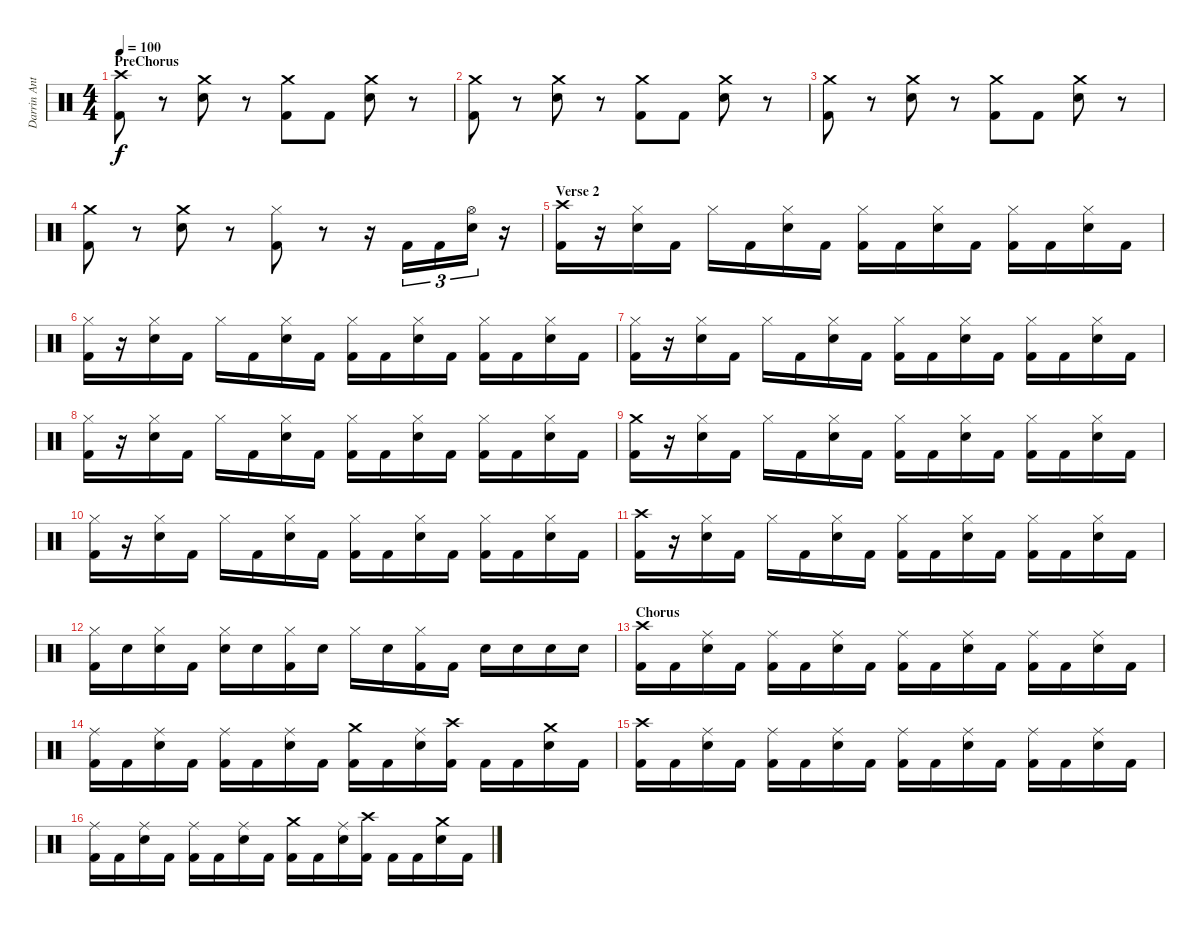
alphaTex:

\track ("Darrin Anthony" "Darrin Ant") {instrument percussion}
\staff {score}
\articulation defaults
\ts (4 4)
\section ("" "PreChorus")
\tempo 100
\clef neutral
\ks c
("Crash high (hit)" "Kick (hit) 2").8{dy f} r.8 ("Crash medium (hit)" "Electric Snare (hit)").8 r.8 ("Crash medium (hit)" "Kick (hit) 2").8 "Kick (hit) 2".8 ("Crash medium (hit)" "Electric Snare (hit)").8 r.8 |
("Crash medium (hit)" "Kick (hit) 2").8 r.8 ("Crash medium (hit)" "Electric Snare (hit)").8 r.8 ("Crash medium (hit)" "Kick (hit) 2").8 "Kick (hit) 2".8 ("Crash medium (hit)" "Electric Snare (hit)").8 r.8 |
("Crash medium (hit)" "Kick (hit) 2").8 r.8 ("Crash medium (hit)" "Electric Snare (hit)").8 r.8 ("Crash medium (hit)" "Kick (hit) 2").8 "Kick (hit) 2".8 ("Crash medium (hit)" "Electric Snare (hit)").8 r.8 |
("Crash medium (hit)" "Kick (hit) 2").8 r.8 ("Crash medium (hit)" "Electric Snare (hit)").8 r.8 ("Hi-Hat (closed)" "Kick (hit) 2").8 r.8 r.16 "Kick (hit) 2".16{tu (3 2)} "Kick (hit) 2".16{tu (3 2)} ("Hi-Hat (open)" "Electric Snare (hit)").16{tu (3 2)} r.16 |
\section ("" "Verse 2")
("Crash high (hit)" "Kick (hit) 2").16 r.16 ("Hi-Hat (closed)" "Electric Snare (hit)").16 "Kick (hit) 2".16 "Hi-Hat (closed)".16 "Kick (hit) 2".16 ("Hi-Hat (closed)" "Electric Snare (hit)").16 "Kick (hit) 2".16 ("Hi-Hat (closed)" "Kick (hit) 2").16 "Kick (hit) 2".16 ("Hi-Hat (closed)" "Electric Snare (hit)").16 "Kick (hit) 2".16 ("Hi-Hat (closed)" "Kick (hit) 2").16 "Kick (hit) 2".16 ("Hi-Hat (closed)" "Electric Snare (hit)").16 "Kick (hit) 2".16 |
("Hi-Hat (closed)" "Kick (hit) 2").16 r.16 ("Hi-Hat (closed)" "Electric Snare (hit)").16 "Kick (hit) 2".16 "Hi-Hat (closed)".16 "Kick (hit) 2".16 ("Hi-Hat (closed)" "Electric Snare (hit)").16 "Kick (hit) 2".16 ("Hi-Hat (closed)" "Kick (hit) 2").16 "Kick (hit) 2".16 ("Hi-Hat (closed)" "Electric Snare (hit)").16 "Kick (hit) 2".16 ("Hi-Hat (closed)" "Kick (hit) 2").16 "Kick (hit) 2".16 ("Hi-Hat (closed)" "Electric Snare (hit)").16 "Kick (hit) 2".16 |
("Hi-Hat (closed)" "Kick (hit) 2").16 r.16 ("Hi-Hat (closed)" "Electric Snare (hit)").16 "Kick (hit) 2".16 "Hi-Hat (closed)".16 "Kick (hit) 2".16 ("Hi-Hat (closed)" "Electric Snare (hit)").16 "Kick (hit) 2".16 ("Hi-Hat (closed)" "Kick (hit) 2").16 "Kick (hit) 2".16 ("Hi-Hat (closed)" "Electric Snare (hit)").16 "Kick (hit) 2".16 ("Hi-Hat (closed)" "Kick (hit) 2").16 "Kick (hit) 2".16 ("Hi-Hat (closed)" "Electric Snare (hit)").16 "Kick (hit) 2".16 |
("Hi-Hat (closed)" "Kick (hit) 2").16 r.16 ("Hi-Hat (closed)" "Electric Snare (hit)").16 "Kick (hit) 2".16 "Hi-Hat (closed)".16 "Kick (hit) 2".16 ("Hi-Hat (closed)" "Electric Snare (hit)").16 "Kick (hit) 2".16 ("Hi-Hat (closed)" "Kick (hit) 2").16 "Kick (hit) 2".16 ("Hi-Hat (closed)" "Electric Snare (hit)").16 "Kick (hit) 2".16 ("Hi-Hat (closed)" "Kick (hit) 2").16 "Kick (hit) 2".16 ("Hi-Hat (closed)" "Electric Snare (hit)").16 "Kick (hit) 2".16 |
("Crash medium (hit)" "Kick (hit) 2").16 r.16 ("Hi-Hat (closed)" "Electric Snare (hit)").16 "Kick (hit) 2".16 "Hi-Hat (closed)".16 "Kick (hit) 2".16 ("Hi-Hat (closed)" "Electric Snare (hit)").16 "Kick (hit) 2".16 ("Hi-Hat (closed)" "Kick (hit) 2").16 "Kick (hit) 2".16 ("Hi-Hat (closed)" "Electric Snare (hit)").16 "Kick (hit) 2".16 ("Hi-Hat (closed)" "Kick (hit) 2").16 "Kick (hit) 2".16 ("Hi-Hat (closed)" "Electric Snare (hit)").16 "Kick (hit) 2".16 |
("Hi-Hat (closed)" "Kick (hit) 2").16 r.16 ("Hi-Hat (closed)" "Electric Snare (hit)").16 "Kick (hit) 2".16 "Hi-Hat (closed)".16 "Kick (hit) 2".16 ("Hi-Hat (closed)" "Electric Snare (hit)").16 "Kick (hit) 2".16 ("Hi-Hat (closed)" "Kick (hit) 2").16 "Kick (hit) 2".16 ("Hi-Hat (closed)" "Electric Snare (hit)").16 "Kick (hit) 2".16 ("Hi-Hat (closed)" "Kick (hit) 2").16 "Kick (hit) 2".16 ("Hi-Hat (closed)" "Electric Snare (hit)").16 "Kick (hit) 2".16 |
("Crash high (hit)" "Kick (hit) 2").16 r.16 ("Hi-Hat (closed)" "Electric Snare (hit)").16 "Kick (hit) 2".16 "Hi-Hat (closed)".16 "Kick (hit) 2".16 ("Hi-Hat (closed)" "Electric Snare (hit)").16 "Kick (hit) 2".16 ("Hi-Hat (closed)" "Kick (hit) 2").16 "Kick (hit) 2".16 ("Hi-Hat (closed)" "Electric Snare (hit)").16 "Kick (hit) 2".16 ("Hi-Hat (closed)" "Kick (hit) 2").16 "Kick (hit) 2".16 ("Hi-Hat (closed)" "Electric Snare (hit)").16 "Kick (hit) 2".16 |
("Hi-Hat (closed)" "Kick (hit) 2").16 "Electric Snare (hit)".16 ("Hi-Hat (closed)" "Electric Snare (hit)").16 "Kick (hit) 2".16 ("Hi-Hat (closed)" "Electric Snare (hit)").16 "Electric Snare (hit)".16 ("Hi-Hat (closed)" "Kick (hit) 2").16 "Electric Snare (hit)".16 "Hi-Hat (closed)".16 "Electric Snare (hit)".16 ("Hi-Hat (closed)" "Kick (hit) 2").16 "Kick (hit) 2".16 "Electric Snare (hit)".16 "Electric Snare (hit)".16 "Electric Snare (hit)".16 "Electric Snare (hit)".16 |
\section ("" "Chorus")
("Crash high (hit)" "Kick (hit) 2").16 "Kick (hit) 2".16 ("Ride (middle)" "Electric Snare (hit)").16 "Kick (hit) 2".16 ("Ride (middle)" "Kick (hit) 2").16 "Kick (hit) 2".16 ("Ride (middle)" "Electric Snare (hit)").16 "Kick (hit) 2".16 ("Ride (middle)" "Kick (hit) 2").16 "Kick (hit) 2".16 ("Ride (middle)" "Electric Snare (hit)").16 "Kick (hit) 2".16 ("Ride (middle)" "Kick (hit) 2").16 "Kick (hit) 2".16 ("Ride (middle)" "Electric Snare (hit)").16 "Kick (hit) 2".16 |
("Ride (middle)" "Kick (hit) 2").16 "Kick (hit) 2".16 ("Ride (middle)" "Electric Snare (hit)").16 "Kick (hit) 2".16 ("Ride (middle)" "Kick (hit) 2").16 "Kick (hit) 2".16 ("Ride (middle)" "Electric Snare (hit)").16 "Kick (hit) 2".16 ("Crash medium (hit)" "Kick (hit) 2").16 "Kick (hit) 2".16 ("Ride (middle)" "Electric Snare (hit)").16 ("Crash high (hit)" "Kick (hit) 2").16 "Kick (hit) 2".16 "Kick (hit) 2".16 ("Crash medium (hit)" "Electric Snare (hit)").16 "Kick (hit) 2".16 |
("Crash high (hit)" "Kick (hit) 2").16 "Kick (hit) 2".16 ("Ride (middle)" "Electric Snare (hit)").16 "Kick (hit) 2".16 ("Ride (middle)" "Kick (hit) 2").16 "Kick (hit) 2".16 ("Ride (middle)" "Electric Snare (hit)").16 "Kick (hit) 2".16 ("Ride (middle)" "Kick (hit) 2").16 "Kick (hit) 2".16 ("Ride (middle)" "Electric Snare (hit)").16 "Kick (hit) 2".16 ("Ride (middle)" "Kick (hit) 2").16 "Kick (hit) 2".16 ("Ride (middle)" "Electric Snare (hit)").16 "Kick (hit) 2".16 |
("Ride (middle)" "Kick (hit) 2").16 "Kick (hit) 2".16 ("Ride (middle)" "Electric Snare (hit)").16 "Kick (hit) 2".16 ("Ride (middle)" "Kick (hit) 2").16 "Kick (hit) 2".16 ("Ride (middle)" "Electric Snare (hit)").16 "Kick (hit) 2".16 ("Crash medium (hit)" "Kick (hit) 2").16 "Kick (hit) 2".16 ("Ride (middle)" "Electric Snare (hit)").16 ("Crash high (hit)" "Kick (hit) 2").16 "Kick (hit) 2".16 "Kick (hit) 2".16 ("Crash medium (hit)" "Electric Snare (hit)").16 "Kick (hit) 2".16
